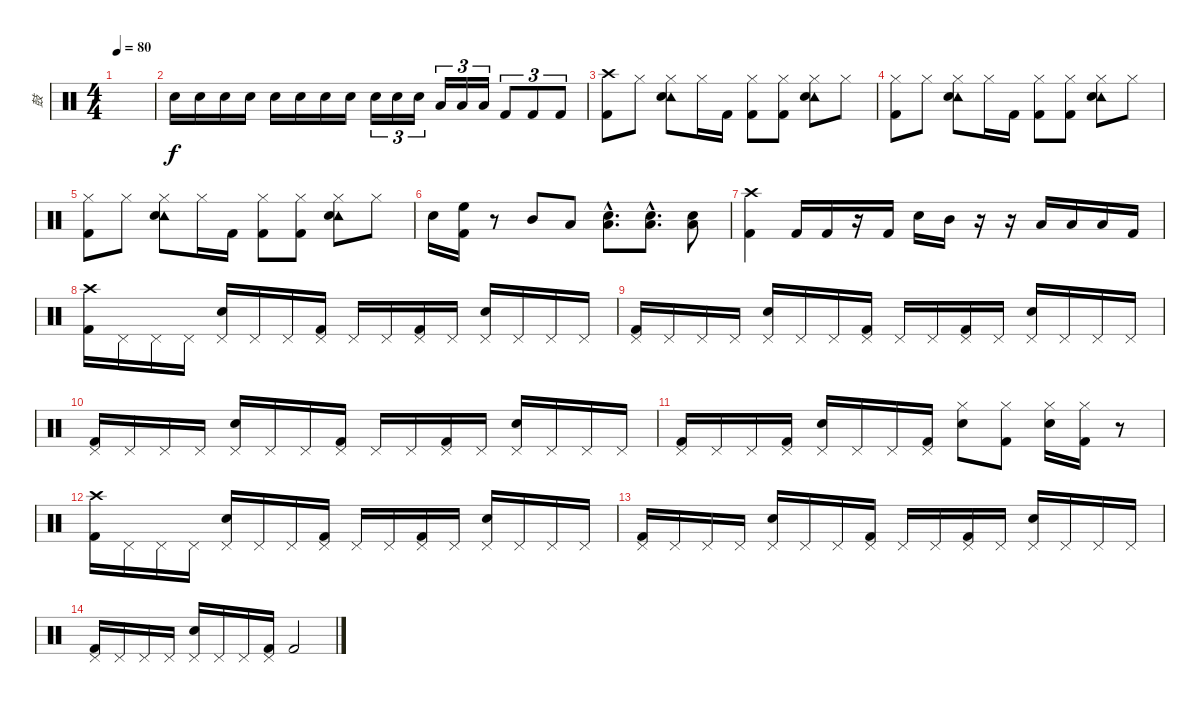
\track ("鼓" "鼓") {instrument percussion}
\staff {score}
\articulation defaults
\ts (4 4)
\tempo 80
\clef neutral
\ks c
|
"Electric Snare (hit)".16{volume 16} "Electric Snare (hit)".16 "Electric Snare (hit)".16 "Electric Snare (hit)".16 "Electric Snare (hit)".16 "Electric Snare (hit)".16 "Electric Snare (hit)".16 "Electric Snare (hit)".16 "Electric Snare (hit)".16{tu (3 2)} "Electric Snare (hit)".16{tu (3 2)} "Electric Snare (hit)".16{tu (3 2)} "Low Floor Tom (hit)".16{tu (3 2)} "Low Floor Tom (hit)".16{tu (3 2)} "Low Floor Tom (hit)".16{tu (3 2)} "Kick (hit) 2".8{tu (3 2)} "Kick (hit) 2".8{tu (3 2)} "Kick (hit) 2".8{tu (3 2)} |
("Crash high (hit)" "Kick (hit) 2").8 "Hi-Hat (closed)".8 ("Hi-Hat (closed)" "Tambourine (hit)" "Electric Snare (hit)").8 "Hi-Hat (closed)".16 "Kick (hit) 2".16 ("Hi-Hat (closed)" "Kick (hit) 2").8 ("Hi-Hat (closed)" "Kick (hit) 2").8 ("Hi-Hat (closed)" "Tambourine (hit)" "Electric Snare (hit)").8 "Hi-Hat (closed)".8 |
("Hi-Hat (closed)" "Kick (hit) 2").8 "Hi-Hat (closed)".8 ("Hi-Hat (closed)" "Tambourine (hit)" "Electric Snare (hit)").8 "Hi-Hat (closed)".16 "Kick (hit) 2".16 ("Hi-Hat (closed)" "Kick (hit) 2").8 ("Hi-Hat (closed)" "Kick (hit) 2").8 ("Hi-Hat (closed)" "Tambourine (hit)" "Electric Snare (hit)").8 "Hi-Hat (closed)".8 |
("Hi-Hat (closed)" "Kick (hit) 2").8 "Hi-Hat (closed)".8 ("Hi-Hat (closed)" "Tambourine (hit)" "Electric Snare (hit)").8 "Hi-Hat (closed)".16 "Kick (hit) 2".16 ("Hi-Hat (closed)" "Kick (hit) 2").8 ("Hi-Hat (closed)" "Kick (hit) 2").8 ("Hi-Hat (closed)" "Tambourine (hit)" "Electric Snare (hit)").8 "Hi-Hat (closed)".8 |
"Electric Snare (hit)".16 ("High Floor Tom (hit)" "Kick (hit) 2").16 r.8 "Mid Tom (hit)".8 "Low Tom (hit)".8 ("Low Floor Tom (hit)"{hac} "Electric Snare (hit)"{hac}).8{d} ("Low Floor Tom (hit)"{hac} "Electric Snare (hit)"{hac}).8{d} ("Low Floor Tom (hit)" "Electric Snare (hit)").8 |
("Crash high (hit)" "Kick (hit) 2").4 "Kick (hit) 2".16 "Kick (hit) 2".16 r.16 "Kick (hit) 2".16 "Electric Snare (hit)".16 "Mid Tom (hit)".16 r.16 r.16 "Low Tom (hit)".16 "Low Floor Tom (hit)".16 "Low Floor Tom (hit)".16 "Kick (hit) 2".16 |
("Crash high (hit)" "Kick (hit) 2").16 "Pedal Hi-Hat (hit)".16 "Pedal Hi-Hat (hit)".16 "Pedal Hi-Hat (hit)".16 ("Pedal Hi-Hat (hit)" "Electric Snare (hit)").16 "Pedal Hi-Hat (hit)".16 "Pedal Hi-Hat (hit)".16 ("Pedal Hi-Hat (hit)" "Kick (hit) 2").16 "Pedal Hi-Hat (hit)".16 "Pedal Hi-Hat (hit)".16 ("Pedal Hi-Hat (hit)" "Kick (hit) 2").16 "Pedal Hi-Hat (hit)".16 ("Pedal Hi-Hat (hit)" "Electric Snare (hit)").16 "Pedal Hi-Hat (hit)".16 "Pedal Hi-Hat (hit)".16 "Pedal Hi-Hat (hit)".16 |
("Pedal Hi-Hat (hit)" "Kick (hit) 2").16 "Pedal Hi-Hat (hit)".16 "Pedal Hi-Hat (hit)".16 "Pedal Hi-Hat (hit)".16 ("Pedal Hi-Hat (hit)" "Electric Snare (hit)").16 "Pedal Hi-Hat (hit)".16 "Pedal Hi-Hat (hit)".16 ("Pedal Hi-Hat (hit)" "Kick (hit) 2").16 "Pedal Hi-Hat (hit)".16 "Pedal Hi-Hat (hit)".16 ("Pedal Hi-Hat (hit)" "Kick (hit) 2").16 "Pedal Hi-Hat (hit)".16 ("Pedal Hi-Hat (hit)" "Electric Snare (hit)").16 "Pedal Hi-Hat (hit)".16 "Pedal Hi-Hat (hit)".16 "Pedal Hi-Hat (hit)".16 |
("Pedal Hi-Hat (hit)" "Kick (hit) 2").16 "Pedal Hi-Hat (hit)".16 "Pedal Hi-Hat (hit)".16 "Pedal Hi-Hat (hit)".16 ("Pedal Hi-Hat (hit)" "Electric Snare (hit)").16 "Pedal Hi-Hat (hit)".16 "Pedal Hi-Hat (hit)".16 ("Pedal Hi-Hat (hit)" "Kick (hit) 2").16 "Pedal Hi-Hat (hit)".16 "Pedal Hi-Hat (hit)".16 ("Pedal Hi-Hat (hit)" "Kick (hit) 2").16 "Pedal Hi-Hat (hit)".16 ("Pedal Hi-Hat (hit)" "Electric Snare (hit)").16 "Pedal Hi-Hat (hit)".16 "Pedal Hi-Hat (hit)".16 "Pedal Hi-Hat (hit)".16 |
("Pedal Hi-Hat (hit)" "Kick (hit) 2").16 "Pedal Hi-Hat (hit)".16 "Pedal Hi-Hat (hit)".16 ("Pedal Hi-Hat (hit)" "Kick (hit) 2").16 ("Pedal Hi-Hat (hit)" "Electric Snare (hit)").16 "Pedal Hi-Hat (hit)".16 "Pedal Hi-Hat (hit)".16 ("Pedal Hi-Hat (hit)" "Kick (hit) 2").16 ("Hi-Hat (closed)" "Electric Snare (hit)").8 ("Hi-Hat (closed)" "Kick (hit) 2").8 ("Hi-Hat (closed)" "Electric Snare (hit)").16 ("Hi-Hat (closed)" "Kick (hit) 2").16 r.8 |
("Crash high (hit)" "Kick (hit) 2").16 "Pedal Hi-Hat (hit)".16 "Pedal Hi-Hat (hit)".16 "Pedal Hi-Hat (hit)".16 ("Pedal Hi-Hat (hit)" "Electric Snare (hit)").16 "Pedal Hi-Hat (hit)".16 "Pedal Hi-Hat (hit)".16 ("Pedal Hi-Hat (hit)" "Kick (hit) 2").16 "Pedal Hi-Hat (hit)".16 "Pedal Hi-Hat (hit)".16 ("Pedal Hi-Hat (hit)" "Kick (hit) 2").16 "Pedal Hi-Hat (hit)".16 ("Pedal Hi-Hat (hit)" "Electric Snare (hit)").16 "Pedal Hi-Hat (hit)".16 "Pedal Hi-Hat (hit)".16 "Pedal Hi-Hat (hit)".16 |
("Pedal Hi-Hat (hit)" "Kick (hit) 2").16 "Pedal Hi-Hat (hit)".16 "Pedal Hi-Hat (hit)".16 "Pedal Hi-Hat (hit)".16 ("Pedal Hi-Hat (hit)" "Electric Snare (hit)").16 "Pedal Hi-Hat (hit)".16 "Pedal Hi-Hat (hit)".16 ("Pedal Hi-Hat (hit)" "Kick (hit) 2").16 "Pedal Hi-Hat (hit)".16 "Pedal Hi-Hat (hit)".16 ("Pedal Hi-Hat (hit)" "Kick (hit) 2").16 "Pedal Hi-Hat (hit)".16 ("Pedal Hi-Hat (hit)" "Electric Snare (hit)").16 "Pedal Hi-Hat (hit)".16 "Pedal Hi-Hat (hit)".16 "Pedal Hi-Hat (hit)".16 |
("Pedal Hi-Hat (hit)" "Kick (hit) 2").16 "Pedal Hi-Hat (hit)".16 "Pedal Hi-Hat (hit)".16 "Pedal Hi-Hat (hit)".16 ("Pedal Hi-Hat (hit)" "Electric Snare (hit)").16 "Pedal Hi-Hat (hit)".16 "Pedal Hi-Hat (hit)".16 ("Pedal Hi-Hat (hit)" "Kick (hit) 2").16 "Kick (hit) 2".2
